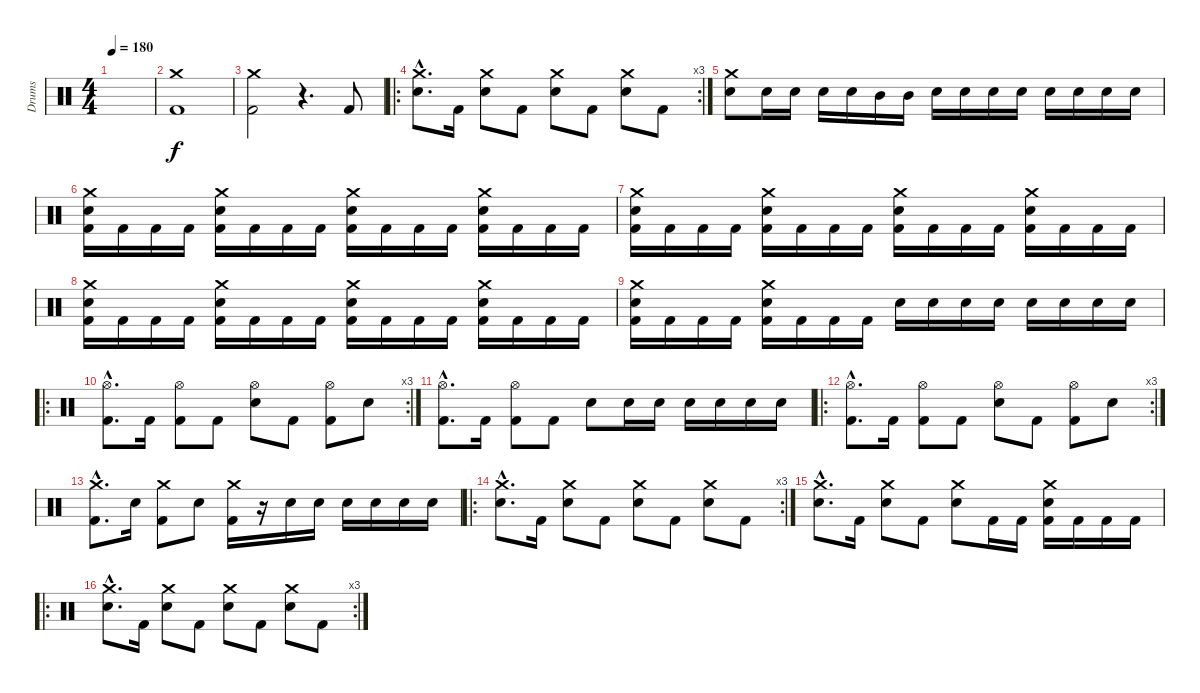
\track ("Drums" "Drums") {instrument percussion}
\staff {score}
\articulation defaults
\ts (4 4)
\tempo 180
\clef neutral
\ks c
|
("Crash medium (hit)" "Kick (hit) 2").1 |
("Crash medium (hit)" "Kick (hit) 2").2 r.4{d} "Kick (hit) 2".8 |
\ro
\rc 3
("Crash medium (hit)"{hac} "Electric Snare (hit)"{hac}).8{d} "Kick (hit) 2".16 ("Crash medium (hit)" "Electric Snare (hit)").8 "Kick (hit) 2".8 ("Crash medium (hit)" "Electric Snare (hit)").8 "Kick (hit) 2".8 ("Crash medium (hit)" "Electric Snare (hit)").8 "Kick (hit) 2".8 |
("Crash medium (hit)" "Electric Snare (hit)").8 "Electric Snare (hit)".16 "Electric Snare (hit)".16 "Electric Snare (hit)".16 "Electric Snare (hit)".16 "Mid Tom (hit)".16 "Mid Tom (hit)".16 "Electric Snare (hit)".16 "Electric Snare (hit)".16 "Electric Snare (hit)".16 "Electric Snare (hit)".16 "Electric Snare (hit)".16 "Electric Snare (hit)".16 "Electric Snare (hit)".16 "Electric Snare (hit)".16 |
("Crash medium (hit)" "Electric Snare (hit)" "Kick (hit) 2").16 "Kick (hit) 2".16 "Kick (hit) 2".16 "Kick (hit) 2".16 ("Crash medium (hit)" "Electric Snare (hit)" "Kick (hit) 2").16 "Kick (hit) 2".16 "Kick (hit) 2".16 "Kick (hit) 2".16 ("Crash medium (hit)" "Electric Snare (hit)" "Kick (hit) 2").16 "Kick (hit) 2".16 "Kick (hit) 2".16 "Kick (hit) 2".16 ("Crash medium (hit)" "Electric Snare (hit)" "Kick (hit) 2").16 "Kick (hit) 2".16 "Kick (hit) 2".16 "Kick (hit) 2".16 |
("Crash medium (hit)" "Electric Snare (hit)" "Kick (hit) 2").16 "Kick (hit) 2".16 "Kick (hit) 2".16 "Kick (hit) 2".16 ("Crash medium (hit)" "Electric Snare (hit)" "Kick (hit) 2").16 "Kick (hit) 2".16 "Kick (hit) 2".16 "Kick (hit) 2".16 ("Crash medium (hit)" "Electric Snare (hit)" "Kick (hit) 2").16 "Kick (hit) 2".16 "Kick (hit) 2".16 "Kick (hit) 2".16 ("Crash medium (hit)" "Electric Snare (hit)" "Kick (hit) 2").16 "Kick (hit) 2".16 "Kick (hit) 2".16 "Kick (hit) 2".16 |
("Crash medium (hit)" "Electric Snare (hit)" "Kick (hit) 2").16 "Kick (hit) 2".16 "Kick (hit) 2".16 "Kick (hit) 2".16 ("Crash medium (hit)" "Electric Snare (hit)" "Kick (hit) 2").16 "Kick (hit) 2".16 "Kick (hit) 2".16 "Kick (hit) 2".16 ("Crash medium (hit)" "Electric Snare (hit)" "Kick (hit) 2").16 "Kick (hit) 2".16 "Kick (hit) 2".16 "Kick (hit) 2".16 ("Crash medium (hit)" "Electric Snare (hit)" "Kick (hit) 2").16 "Kick (hit) 2".16 "Kick (hit) 2".16 "Kick (hit) 2".16 |
("Crash medium (hit)" "Electric Snare (hit)" "Kick (hit) 2").16 "Kick (hit) 2".16 "Kick (hit) 2".16 "Kick (hit) 2".16 ("Crash medium (hit)" "Electric Snare (hit)" "Kick (hit) 2").16 "Kick (hit) 2".16 "Kick (hit) 2".16 "Kick (hit) 2".16 "Electric Snare (hit)".16 "Electric Snare (hit)".16 "Electric Snare (hit)".16 "Electric Snare (hit)".16 "Electric Snare (hit)".16 "Electric Snare (hit)".16 "Electric Snare (hit)".16 "Electric Snare (hit)".16 |
\ro
\rc 3
("Hi-Hat (open)"{hac} "Kick (hit) 2"{hac}).8{d} "Kick (hit) 2".16 ("Hi-Hat (open)" "Kick (hit) 2").8 "Kick (hit) 2".8 ("Hi-Hat (open)" "Electric Snare (hit)").8 "Kick (hit) 2".8 ("Hi-Hat (open)" "Kick (hit) 2").8 "Electric Snare (hit)".8 |
("Hi-Hat (open)"{hac} "Kick (hit) 2"{hac}).8{d} "Kick (hit) 2".16 ("Hi-Hat (open)" "Kick (hit) 2").8 "Kick (hit) 2".8 "Electric Snare (hit)".8 "Electric Snare (hit)".16 "Electric Snare (hit)".16 "Electric Snare (hit)".16 "Electric Snare (hit)".16 "Electric Snare (hit)".16 "Electric Snare (hit)".16 |
\ro
\rc 3
("Hi-Hat (open)"{hac} "Kick (hit) 2"{hac}).8{d} "Kick (hit) 2".16 ("Hi-Hat (open)" "Kick (hit) 2").8 "Kick (hit) 2".8 ("Hi-Hat (open)" "Electric Snare (hit)").8 "Kick (hit) 2".8 ("Hi-Hat (open)" "Kick (hit) 2").8 "Electric Snare (hit)".8 |
("Crash medium (hit)"{hac} "Kick (hit) 2"{hac}).8{d} "Electric Snare (hit)".16 ("Crash medium (hit)" "Kick (hit) 2").8 "Electric Snare (hit)".8 ("Crash medium (hit)" "Kick (hit) 2").16 r.16 "Electric Snare (hit)".16 "Electric Snare (hit)".16 "Electric Snare (hit)".16 "Electric Snare (hit)".16 "Electric Snare (hit)".16 "Electric Snare (hit)".16 |
\ro
\rc 3
("Crash medium (hit)"{hac} "Electric Snare (hit)"{hac}).8{d} "Kick (hit) 2".16 ("Crash medium (hit)" "Electric Snare (hit)").8 "Kick (hit) 2".8 ("Crash medium (hit)" "Electric Snare (hit)").8 "Kick (hit) 2".8 ("Crash medium (hit)" "Electric Snare (hit)").8 "Kick (hit) 2".8 |
("Crash medium (hit)"{hac} "Electric Snare (hit)"{hac}).8{d} "Kick (hit) 2".16 ("Crash medium (hit)" "Electric Snare (hit)").8 "Kick (hit) 2".8 ("Crash medium (hit)" "Electric Snare (hit)").8 "Kick (hit) 2".16 "Kick (hit) 2".16 ("Crash medium (hit)" "Electric Snare (hit)" "Kick (hit) 2").16 "Kick (hit) 2".16 "Kick (hit) 2".16 "Kick (hit) 2".16 |
\ro
\rc 3
("Crash medium (hit)"{hac} "Electric Snare (hit)"{hac}).8{d} "Kick (hit) 2".16 ("Crash medium (hit)" "Electric Snare (hit)").8 "Kick (hit) 2".8 ("Crash medium (hit)" "Electric Snare (hit)").8 "Kick (hit) 2".8 ("Crash medium (hit)" "Electric Snare (hit)").8 "Kick (hit) 2".8
